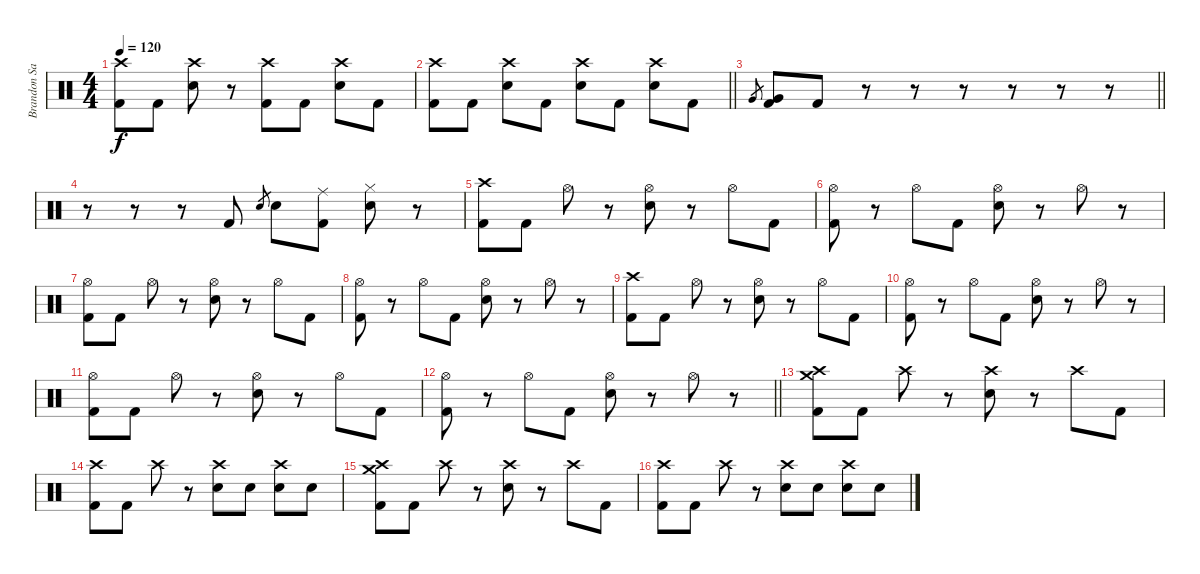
\track ("Brandon Saller" "Brandon Sa") {instrument percussion}
\staff {score}
\articulation defaults
\ts (4 4)
\tempo 120
\clef neutral
\ks c
("Crash high (hit)" "Kick (hit) 2").8{dy f} "Kick (hit) 2".8 ("Crash high (hit)" "Electric Snare (hit)").8 r.8 ("Crash high (hit)" "Kick (hit) 2").8 "Kick (hit) 2".8 ("Crash high (hit)" "Electric Snare (hit)").8 "Kick (hit) 2".8 |
\barLineRight lightlight
("Crash high (hit)" "Kick (hit) 2").8 "Kick (hit) 2".8 ("Crash high (hit)" "Electric Snare (hit)").8 "Kick (hit) 2".8 ("Crash high (hit)" "Electric Snare (hit)").8 "Kick (hit) 2".8 ("Crash high (hit)" "Electric Snare (hit)").8 "Kick (hit) 2".8 |
\barLineRight lightlight "Very Low Tom (hit)".8{gr}
("Very Low Tom (hit)" "Kick (hit) 2").8 "Kick (hit) 2".8 r.8 r.8 r.8 r.8 r.8 r.8 |
\section ("" "")
r.8 r.8 r.8 "Kick (hit) 2".8 "Electric Snare (hit)".8{gr} "Electric Snare (hit)".8 ("Ride (middle)" "Kick (hit) 2").8 ("Hi-Hat (closed)" "Electric Snare (hit)").8 r.8 |
("Crash high (hit)" "Kick (hit) 2").8 "Kick (hit) 2".8 "Hi-Hat (open)".8 r.8 ("Hi-Hat (open)" "Electric Snare (hit)").8 r.8 "Hi-Hat (open)".8 "Kick (hit) 2".8 |
("Hi-Hat (open)" "Kick (hit) 2").8 r.8 "Hi-Hat (open)".8 "Kick (hit) 2".8 ("Hi-Hat (open)" "Electric Snare (hit)").8 r.8 "Hi-Hat (open)".8 r.8 |
("Hi-Hat (open)" "Kick (hit) 2").8 "Kick (hit) 2".8 "Hi-Hat (open)".8 r.8 ("Hi-Hat (open)" "Electric Snare (hit)").8 r.8 "Hi-Hat (open)".8 "Kick (hit) 2".8 |
("Hi-Hat (open)" "Kick (hit) 2").8 r.8 "Hi-Hat (open)".8 "Kick (hit) 2".8 ("Hi-Hat (open)" "Electric Snare (hit)").8 r.8 "Hi-Hat (open)".8 r.8 |
("Crash high (hit)" "Kick (hit) 2").8 "Kick (hit) 2".8 "Hi-Hat (open)".8 r.8 ("Hi-Hat (open)" "Electric Snare (hit)").8 r.8 "Hi-Hat (open)".8 "Kick (hit) 2".8 |
("Hi-Hat (open)" "Kick (hit) 2").8 r.8 "Hi-Hat (open)".8 "Kick (hit) 2".8 ("Hi-Hat (open)" "Electric Snare (hit)").8 r.8 "Hi-Hat (open)".8 r.8 |
("Hi-Hat (open)" "Kick (hit) 2").8 "Kick (hit) 2".8 "Hi-Hat (open)".8 r.8 ("Hi-Hat (open)" "Electric Snare (hit)").8 r.8 "Hi-Hat (open)".8 "Kick (hit) 2".8 |
\barLineRight lightlight
("Hi-Hat (open)" "Kick (hit) 2").8 r.8 "Hi-Hat (open)".8 "Kick (hit) 2".8 ("Hi-Hat (open)" "Electric Snare (hit)").8 r.8 "Hi-Hat (open)".8 r.8 |
("Crash high (hit)" "Crash medium (hit)" "Kick (hit) 2").8 "Kick (hit) 2".8 "Crash high (hit)".8 r.8 ("Crash high (hit)" "Electric Snare (hit)").8 r.8 "Crash high (hit)".8 "Kick (hit) 2".8 |
("Crash high (hit)" "Kick (hit) 2").8 "Kick (hit) 2".8 "Crash high (hit)".8 r.8 ("Crash high (hit)" "Electric Snare (hit)").8 "Electric Snare (hit)".8 ("Crash high (hit)" "Electric Snare (hit)").8 "Electric Snare (hit)".8 |
("Crash high (hit)" "Crash medium (hit)" "Kick (hit) 2").8 "Kick (hit) 2".8 "Crash high (hit)".8 r.8 ("Crash high (hit)" "Electric Snare (hit)").8 r.8 "Crash high (hit)".8 "Kick (hit) 2".8 |
("Crash high (hit)" "Kick (hit) 2").8 "Kick (hit) 2".8 "Crash high (hit)".8 r.8 ("Crash high (hit)" "Electric Snare (hit)").8 "Electric Snare (hit)".8 ("Crash high (hit)" "Electric Snare (hit)").8 "Electric Snare (hit)".8
